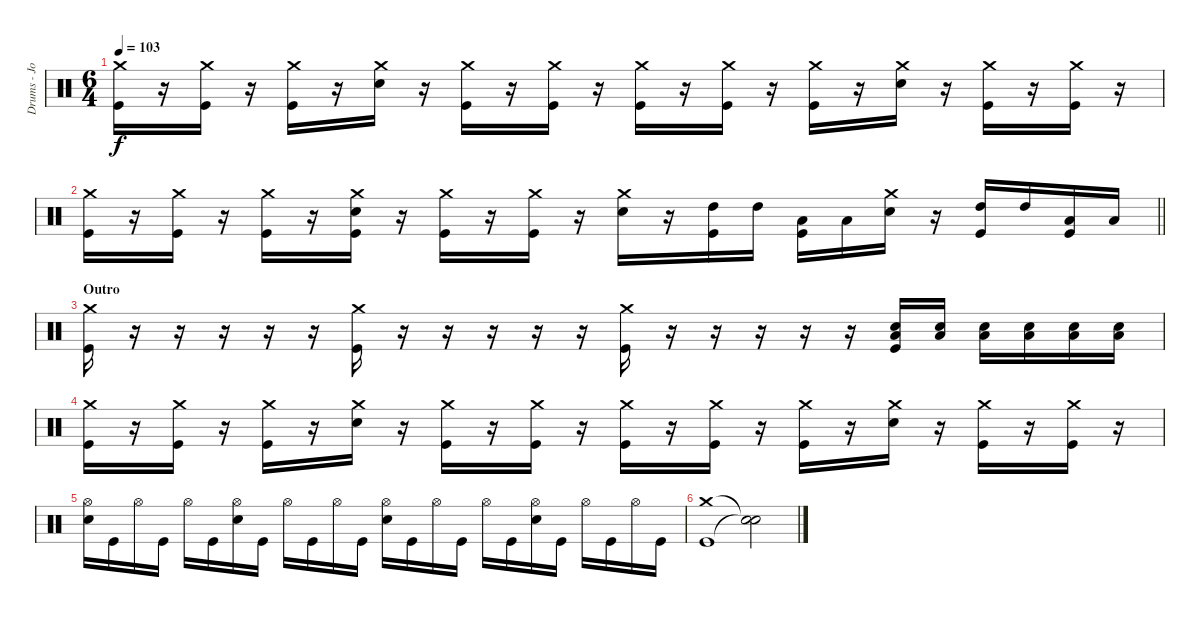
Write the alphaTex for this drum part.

\track ("Drums - Josh Wills" "Drums - Jo") {instrument percussion}
\staff {score}
\articulation defaults
\ts (6 4)
\tempo 103
\clef neutral
\ks c
("Crash medium (hit)" "Kick (hit)").16{dy f} r.16 ("Crash medium (hit)" "Kick (hit)").16 r.16 ("Crash medium (hit)" "Kick (hit)").16 r.16 ("Crash medium (hit)" "Electric Snare (hit)").16 r.16 ("Crash medium (hit)" "Kick (hit)").16 r.16 ("Crash medium (hit)" "Kick (hit)").16 r.16 ("Crash medium (hit)" "Kick (hit)").16 r.16 ("Crash medium (hit)" "Kick (hit)").16 r.16 ("Crash medium (hit)" "Kick (hit)").16 r.16 ("Crash medium (hit)" "Electric Snare (hit)").16 r.16 ("Crash medium (hit)" "Kick (hit)").16 r.16 ("Crash medium (hit)" "Kick (hit)").16 r.16 |
\barLineRight lightlight
("Crash medium (hit)" "Kick (hit)").16 r.16 ("Crash medium (hit)" "Kick (hit)").16 r.16 ("Crash medium (hit)" "Kick (hit)").16 r.16 ("Crash medium (hit)" "Electric Snare (hit)" "Kick (hit)").16 r.16 ("Crash medium (hit)" "Kick (hit)").16 r.16 ("Crash medium (hit)" "Kick (hit)").16 r.16 ("Crash medium (hit)" "Electric Snare (hit)").16 r.16 ("High Tom (hit)" "Kick (hit)").16 "High Tom (hit)".16 ("Low Tom (hit)" "Kick (hit)").16 "Low Tom (hit)".16 ("Crash medium (hit)" "Electric Snare (hit)").16 r.16 ("High Tom (hit)" "Kick (hit)").16 "High Tom (hit)".16 ("Low Tom (hit)" "Kick (hit)").16 "Low Tom (hit)".16 |
\section ("" "Outro")
("Crash medium (hit)" "Kick (hit)").16 r.16 r.16 r.16 r.16 r.16 ("Crash medium (hit)" "Kick (hit)").16 r.16 r.16 r.16 r.16 r.16 ("Crash medium (hit)" "Kick (hit)").16 r.16 r.16 r.16 r.16 r.16 ("Low Tom (hit)" "Electric Snare (hit)" "Kick (hit)").16 ("Low Tom (hit)" "Electric Snare (hit)").16 ("Low Tom (hit)" "Electric Snare (hit)").16 ("Low Tom (hit)" "Electric Snare (hit)").16 ("Low Tom (hit)" "Electric Snare (hit)").16 ("Low Tom (hit)" "Electric Snare (hit)").16 |
("Crash medium (hit)" "Kick (hit)").16 r.16 ("Crash medium (hit)" "Kick (hit)").16 r.16 ("Crash medium (hit)" "Kick (hit)").16 r.16 ("Crash medium (hit)" "Electric Snare (hit)").16 r.16 ("Crash medium (hit)" "Kick (hit)").16 r.16 ("Crash medium (hit)" "Kick (hit)").16 r.16 ("Crash medium (hit)" "Kick (hit)").16 r.16 ("Crash medium (hit)" "Kick (hit)").16 r.16 ("Crash medium (hit)" "Kick (hit)").16 r.16 ("Crash medium (hit)" "Electric Snare (hit)").16 r.16 ("Crash medium (hit)" "Kick (hit)").16 r.16 ("Crash medium (hit)" "Kick (hit)").16 r.16 |
("Hi-Hat (open)" "Electric Snare (hit)").16 "Kick (hit)".16 "Hi-Hat (open)".16 "Kick (hit)".16 "Hi-Hat (open)".16 "Kick (hit)".16 ("Hi-Hat (open)" "Electric Snare (hit)").16 "Kick (hit)".16 "Hi-Hat (open)".16 "Kick (hit)".16 "Hi-Hat (open)".16 "Kick (hit)".16 ("Hi-Hat (open)" "Electric Snare (hit)").16 "Kick (hit)".16 "Hi-Hat (open)".16 "Kick (hit)".16 "Hi-Hat (open)".16 "Kick (hit)".16 ("Hi-Hat (open)" "Electric Snare (hit)").16 "Kick (hit)".16 "Hi-Hat (open)".16 "Kick (hit)".16 "Hi-Hat (open)".16 "Kick (hit)".16 |
("Crash medium (hit)" "Kick (hit)").1 ("Snare (hit)"{t} "Snare (hit)"{t}).2
